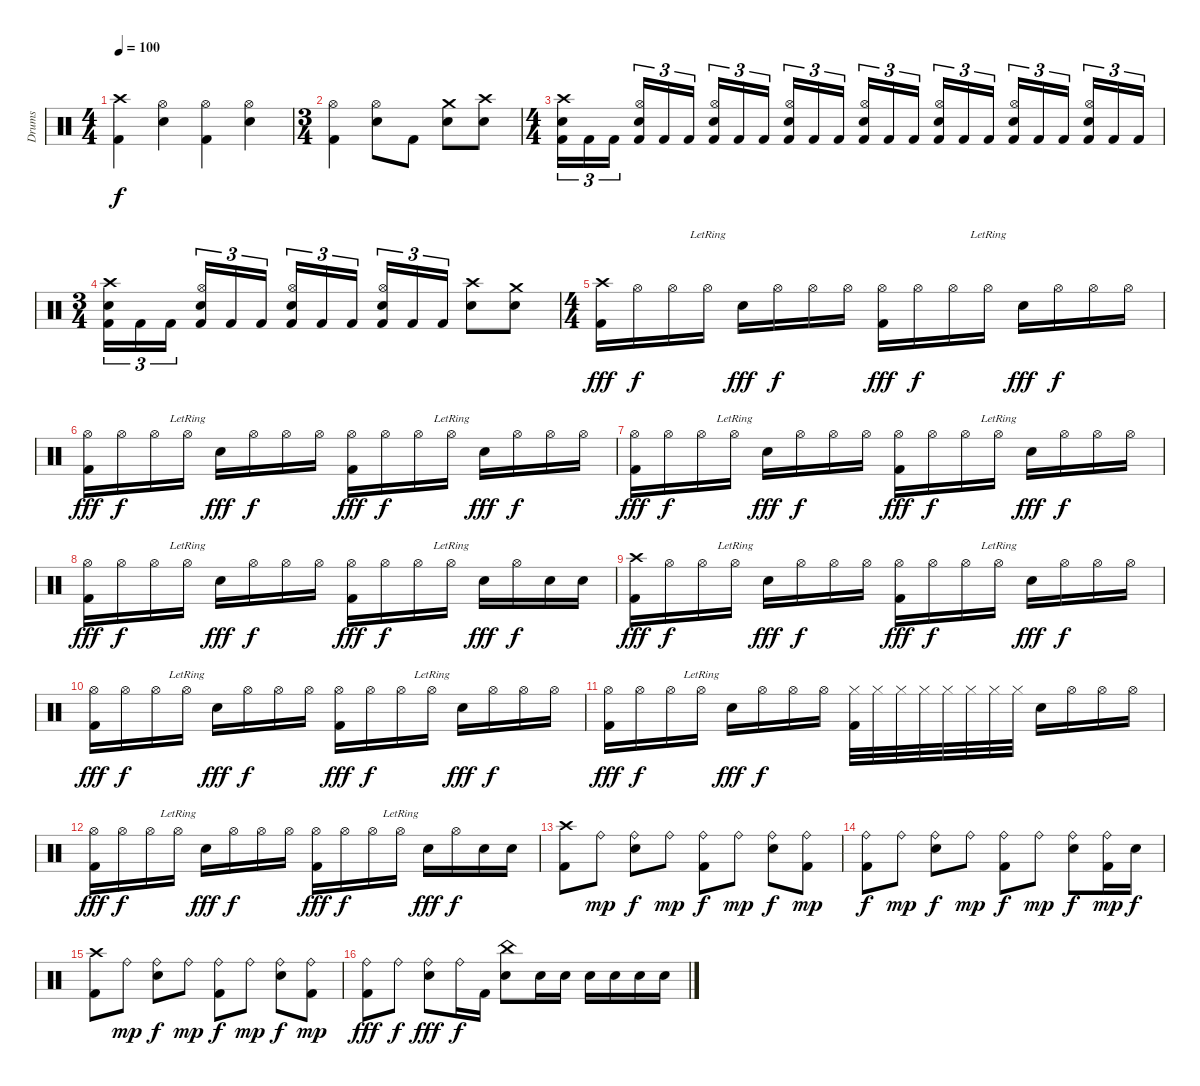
\track ("Drums" "Drums") {instrument percussion}
\staff {score}
\articulation defaults
\ts (4 4)
\tempo 100
\clef neutral
\ks c
("Crash high (hit)" "Kick (hit) 2").4{dy f} ("Hi-Hat (open)" "Snare (hit) 2").4 ("Hi-Hat (open)" "Kick (hit) 2").4 ("Hi-Hat (open)" "Snare (hit) 2").4 |
\ts (3 4)
("Hi-Hat (open)" "Kick (hit) 2").4 ("Hi-Hat (open)" "Snare (hit) 2").8 "Kick (hit) 2".8 ("Crash medium (hit)" "Snare (hit) 2").8 ("Crash high (hit)" "Snare (hit) 2").8 |
\ts (4 4)
("Crash high (hit)" "Snare (hit) 2" "Kick (hit) 2").16{tu (3 2)} "Kick (hit) 2".16{tu (3 2)} "Kick (hit) 2".16{tu (3 2)} ("Hi-Hat (open)" "Snare (hit) 2" "Kick (hit) 2").16{tu (3 2)} "Kick (hit) 2".16{tu (3 2)} "Kick (hit) 2".16{tu (3 2)} ("Hi-Hat (open)" "Snare (hit) 2" "Kick (hit) 2").16{tu (3 2)} "Kick (hit) 2".16{tu (3 2)} "Kick (hit) 2".16{tu (3 2)} ("Hi-Hat (open)" "Snare (hit) 2" "Kick (hit) 2").16{tu (3 2)} "Kick (hit) 2".16{tu (3 2)} "Kick (hit) 2".16{tu (3 2)} ("Hi-Hat (open)" "Snare (hit) 2" "Kick (hit) 2").16{tu (3 2)} "Kick (hit) 2".16{tu (3 2)} "Kick (hit) 2".16{tu (3 2)} ("Hi-Hat (open)" "Snare (hit) 2" "Kick (hit) 2").16{tu (3 2)} "Kick (hit) 2".16{tu (3 2)} "Kick (hit) 2".16{tu (3 2)} ("Hi-Hat (open)" "Snare (hit) 2" "Kick (hit) 2").16{tu (3 2)} "Kick (hit) 2".16{tu (3 2)} "Kick (hit) 2".16{tu (3 2)} ("Hi-Hat (open)" "Snare (hit) 2" "Kick (hit) 2").16{tu (3 2)} "Kick (hit) 2".16{tu (3 2)} "Kick (hit) 2".16{tu (3 2)} |
\ts (3 4)
("Crash high (hit)" "Snare (hit) 2" "Kick (hit) 2").16{tu (3 2)} "Kick (hit) 2".16{tu (3 2)} "Kick (hit) 2".16{tu (3 2)} ("Hi-Hat (open)" "Snare (hit) 2" "Kick (hit) 2").16{tu (3 2)} "Kick (hit) 2".16{tu (3 2)} "Kick (hit) 2".16{tu (3 2)} ("Hi-Hat (open)" "Snare (hit) 2" "Kick (hit) 2").16{tu (3 2)} "Kick (hit) 2".16{tu (3 2)} "Kick (hit) 2".16{tu (3 2)} ("Hi-Hat (open)" "Snare (hit) 2" "Kick (hit) 2").16{tu (3 2)} "Kick (hit) 2".16{tu (3 2)} "Kick (hit) 2".16{tu (3 2)} ("Crash high (hit)" "Snare (hit) 2").8 ("Crash medium (hit)" "Snare (hit) 2").8 |
\ts (4 4)
("Crash high (hit)" "Kick (hit) 2").16{dy fff} "Hi-Hat (open)".16{dy f} "Hi-Hat (open)".16 "Hi-Hat (open)"{lr}.16 "Snare (hit) 2".16{dy fff} "Hi-Hat (open)".16{dy f} "Hi-Hat (open)".16 "Hi-Hat (open)".16 ("Hi-Hat (open)" "Kick (hit) 2").16{dy fff} "Hi-Hat (open)".16{dy f} "Hi-Hat (open)".16 "Hi-Hat (open)"{lr}.16 "Snare (hit) 2".16{dy fff} "Hi-Hat (open)".16{dy f} "Hi-Hat (open)".16 "Hi-Hat (open)".16 |
("Hi-Hat (open)" "Kick (hit) 2").16{dy fff} "Hi-Hat (open)".16{dy f} "Hi-Hat (open)".16 "Hi-Hat (open)"{lr}.16 "Snare (hit) 2".16{dy fff} "Hi-Hat (open)".16{dy f} "Hi-Hat (open)".16 "Hi-Hat (open)".16 ("Hi-Hat (open)" "Kick (hit) 2").16{dy fff} "Hi-Hat (open)".16{dy f} "Hi-Hat (open)".16 "Hi-Hat (open)"{lr}.16 "Snare (hit) 2".16{dy fff} "Hi-Hat (open)".16{dy f} "Hi-Hat (open)".16 "Hi-Hat (open)".16 |
("Hi-Hat (open)" "Kick (hit) 2").16{dy fff} "Hi-Hat (open)".16{dy f} "Hi-Hat (open)".16 "Hi-Hat (open)"{lr}.16 "Snare (hit) 2".16{dy fff} "Hi-Hat (open)".16{dy f} "Hi-Hat (open)".16 "Hi-Hat (open)".16 ("Hi-Hat (open)" "Kick (hit) 2").16{dy fff} "Hi-Hat (open)".16{dy f} "Hi-Hat (open)".16 "Hi-Hat (open)"{lr}.16 "Snare (hit) 2".16{dy fff} "Hi-Hat (open)".16{dy f} "Hi-Hat (open)".16 "Hi-Hat (open)".16 |
("Hi-Hat (open)" "Kick (hit) 2").16{dy fff} "Hi-Hat (open)".16{dy f} "Hi-Hat (open)".16 "Hi-Hat (open)"{lr}.16 "Snare (hit) 2".16{dy fff} "Hi-Hat (open)".16{dy f} "Hi-Hat (open)".16 "Hi-Hat (open)".16 ("Hi-Hat (open)" "Kick (hit) 2").16{dy fff} "Hi-Hat (open)".16{dy f} "Hi-Hat (open)".16 "Hi-Hat (open)"{lr}.16 "Snare (hit) 2".16{dy fff} "Hi-Hat (open)".16{dy f} "Snare (hit) 2".16 "Snare (hit) 2".16 |
("Crash high (hit)" "Kick (hit) 2").16{dy fff} "Hi-Hat (open)".16{dy f} "Hi-Hat (open)".16 "Hi-Hat (open)"{lr}.16 "Snare (hit) 2".16{dy fff} "Hi-Hat (open)".16{dy f} "Hi-Hat (open)".16 "Hi-Hat (open)".16 ("Hi-Hat (open)" "Kick (hit) 2").16{dy fff} "Hi-Hat (open)".16{dy f} "Hi-Hat (open)".16 "Hi-Hat (open)"{lr}.16 "Snare (hit) 2".16{dy fff} "Hi-Hat (open)".16{dy f} "Hi-Hat (open)".16 "Hi-Hat (open)".16 |
("Hi-Hat (open)" "Kick (hit) 2").16{dy fff} "Hi-Hat (open)".16{dy f} "Hi-Hat (open)".16 "Hi-Hat (open)"{lr}.16 "Snare (hit) 2".16{dy fff} "Hi-Hat (open)".16{dy f} "Hi-Hat (open)".16 "Hi-Hat (open)".16 ("Hi-Hat (open)" "Kick (hit) 2").16{dy fff} "Hi-Hat (open)".16{dy f} "Hi-Hat (open)".16 "Hi-Hat (open)"{lr}.16 "Snare (hit) 2".16{dy fff} "Hi-Hat (open)".16{dy f} "Hi-Hat (open)".16 "Hi-Hat (open)".16 |
("Hi-Hat (open)" "Kick (hit) 2").16{dy fff} "Hi-Hat (open)".16{dy f} "Hi-Hat (open)".16 "Hi-Hat (open)"{lr}.16 "Snare (hit) 2".16{dy fff} "Hi-Hat (open)".16{dy f} "Hi-Hat (open)".16 "Hi-Hat (open)".16 ("Hi-Hat (closed)" "Kick (hit) 2").32 "Hi-Hat (closed)".32 "Hi-Hat (closed)".32 "Hi-Hat (closed)".32 "Hi-Hat (closed)".32 "Hi-Hat (closed)".32 "Hi-Hat (closed)".32 "Hi-Hat (closed)".32 "Snare (hit) 2".16 "Hi-Hat (open)".16 "Hi-Hat (open)".16 "Hi-Hat (open)".16 |
("Hi-Hat (open)" "Kick (hit) 2").16{dy fff} "Hi-Hat (open)".16{dy f} "Hi-Hat (open)".16 "Hi-Hat (open)"{lr}.16 "Snare (hit) 2".16{dy fff} "Hi-Hat (open)".16{dy f} "Hi-Hat (open)".16 "Hi-Hat (open)".16 ("Hi-Hat (open)" "Kick (hit) 2").16{dy fff} "Hi-Hat (open)".16{dy f} "Hi-Hat (open)".16 "Hi-Hat (open)"{lr}.16 "Snare (hit) 2".16{dy fff} "Hi-Hat (open)".16{dy f} "Snare (hit) 2".16 "Snare (hit) 2".16 |
("Crash high (hit)" "Kick (hit) 2").8 "Ride (bell)".8{dy mp} ("Ride (bell)" "Snare (hit) 2").8{dy f} "Ride (bell)".8{dy mp} ("Ride (bell)" "Kick (hit) 2").8{dy f} "Ride (bell)".8{dy mp} ("Ride (bell)" "Snare (hit) 2").8{dy f} ("Ride (bell)" "Kick (hit) 2").8{dy mp} |
("Ride (bell)" "Kick (hit) 2").8{dy f} "Ride (bell)".8{dy mp} ("Ride (bell)" "Snare (hit) 2").8{dy f} "Ride (bell)".8{dy mp} ("Ride (bell)" "Kick (hit) 2").8{dy f} "Ride (bell)".8{dy mp} ("Ride (bell)" "Snare (hit) 2").8{dy f} ("Ride (bell)" "Kick (hit) 2").16{dy mp} "Snare (hit) 2".16{dy f} |
("Crash high (hit)" "Kick (hit) 2").8 "Ride (bell)".8{dy mp} ("Ride (bell)" "Snare (hit) 2").8{dy f} "Ride (bell)".8{dy mp} ("Ride (bell)" "Kick (hit) 2").8{dy f} "Ride (bell)".8{dy mp} ("Ride (bell)" "Snare (hit) 2").8{dy f} ("Ride (bell)" "Kick (hit) 2").8{dy mp} |
("Ride (bell)" "Kick (hit) 2").8{dy fff} "Ride (bell)".8{dy f} ("Ride (bell)" "Snare (hit) 2").8{dy fff} "Ride (bell)".16{dy f} "Kick (hit) 2".16 ("China (hit)" "Snare (hit) 2").8 "Snare (hit) 2".16 "Snare (hit) 2".16 "Snare (hit) 2".16 "Snare (hit) 2".16 "Snare (hit) 2".16 "Snare (hit) 2".16
